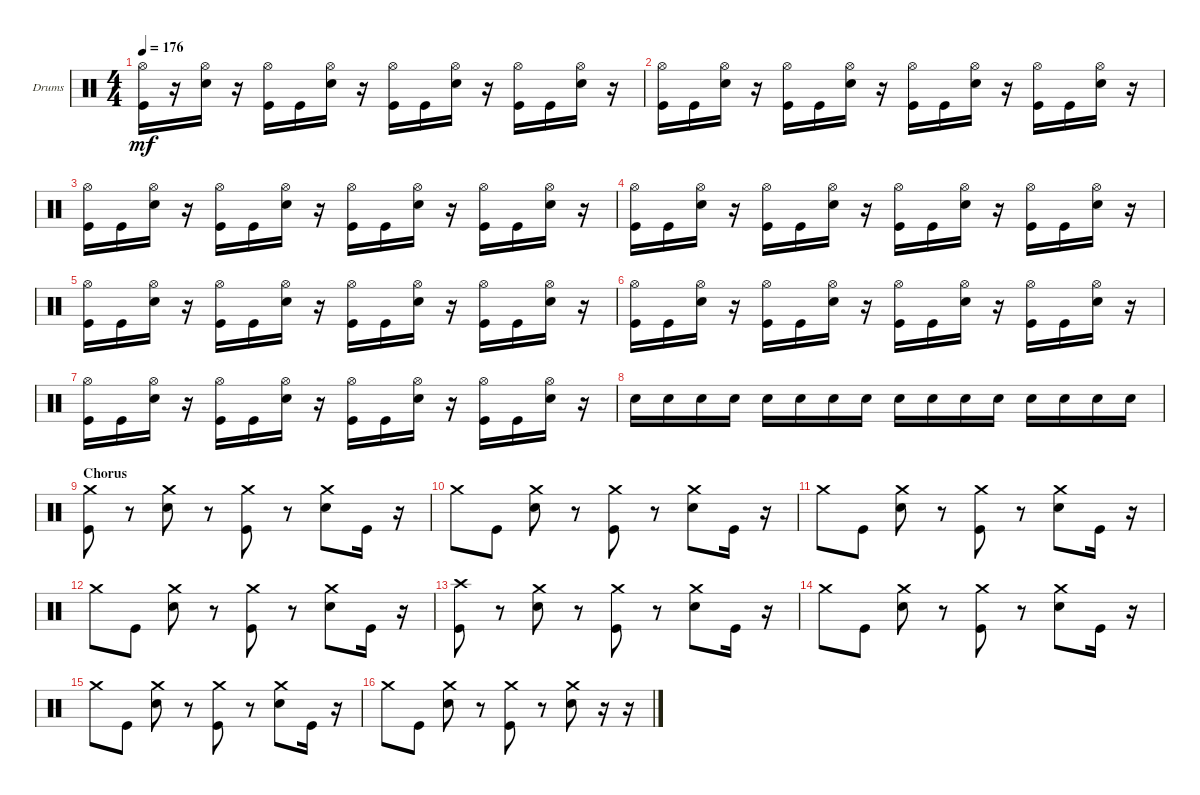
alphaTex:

\bracketExtendMode groupsimilarinstruments
\firstSystemTrackNameOrientation horizontal
\otherSystemsTrackNameOrientation horizontal
\track ("Drums" "Drums") {instrument percussion}
\staff {score}
\articulation defaults
\ts (4 4)
\tempo 176
\clef neutral
\ks c
("Kick (hit)" "Hi-Hat (open)").16{dy mf} r.16 ("Hi-Hat (open)" "Snare (hit) 2").16 r.16 ("Hi-Hat (open)" "Kick (hit)").16 "Kick (hit)".16 ("Hi-Hat (open)" "Snare (hit) 2").16 r.16 ("Hi-Hat (open)" "Kick (hit)").16 "Kick (hit)".16 ("Hi-Hat (open)" "Snare (hit) 2").16 r.16 ("Hi-Hat (open)" "Kick (hit)").16 "Kick (hit)".16 ("Hi-Hat (open)" "Snare (hit) 2").16 r.16 |
("Kick (hit)" "Hi-Hat (open)").16 "Kick (hit)".16 ("Hi-Hat (open)" "Snare (hit) 2").16 r.16 ("Hi-Hat (open)" "Kick (hit)").16 "Kick (hit)".16 ("Hi-Hat (open)" "Snare (hit) 2").16 r.16 ("Hi-Hat (open)" "Kick (hit)").16 "Kick (hit)".16 ("Hi-Hat (open)" "Snare (hit) 2").16 r.16 ("Hi-Hat (open)" "Kick (hit)").16 "Kick (hit)".16 ("Hi-Hat (open)" "Snare (hit) 2").16 r.16 |
("Kick (hit)" "Hi-Hat (open)").16 "Kick (hit)".16 ("Hi-Hat (open)" "Snare (hit) 2").16 r.16 ("Hi-Hat (open)" "Kick (hit)").16 "Kick (hit)".16 ("Hi-Hat (open)" "Snare (hit) 2").16 r.16 ("Hi-Hat (open)" "Kick (hit)").16 "Kick (hit)".16 ("Hi-Hat (open)" "Snare (hit) 2").16 r.16 ("Hi-Hat (open)" "Kick (hit)").16 "Kick (hit)".16 ("Hi-Hat (open)" "Snare (hit) 2").16 r.16 |
("Kick (hit)" "Hi-Hat (open)").16 "Kick (hit)".16 ("Hi-Hat (open)" "Snare (hit) 2").16 r.16 ("Hi-Hat (open)" "Kick (hit)").16 "Kick (hit)".16 ("Hi-Hat (open)" "Snare (hit) 2").16 r.16 ("Hi-Hat (open)" "Kick (hit)").16 "Kick (hit)".16 ("Hi-Hat (open)" "Snare (hit) 2").16 r.16 ("Hi-Hat (open)" "Kick (hit)").16 "Kick (hit)".16 ("Hi-Hat (open)" "Snare (hit) 2").16 r.16 |
("Kick (hit)" "Hi-Hat (open)").16 "Kick (hit)".16 ("Hi-Hat (open)" "Snare (hit) 2").16 r.16 ("Hi-Hat (open)" "Kick (hit)").16 "Kick (hit)".16 ("Hi-Hat (open)" "Snare (hit) 2").16 r.16 ("Hi-Hat (open)" "Kick (hit)").16 "Kick (hit)".16 ("Hi-Hat (open)" "Snare (hit) 2").16 r.16 ("Hi-Hat (open)" "Kick (hit)").16 "Kick (hit)".16 ("Hi-Hat (open)" "Snare (hit) 2").16 r.16 |
("Kick (hit)" "Hi-Hat (open)").16 "Kick (hit)".16 ("Hi-Hat (open)" "Snare (hit) 2").16 r.16 ("Hi-Hat (open)" "Kick (hit)").16 "Kick (hit)".16 ("Hi-Hat (open)" "Snare (hit) 2").16 r.16 ("Hi-Hat (open)" "Kick (hit)").16 "Kick (hit)".16 ("Hi-Hat (open)" "Snare (hit) 2").16 r.16 ("Hi-Hat (open)" "Kick (hit)").16 "Kick (hit)".16 ("Hi-Hat (open)" "Snare (hit) 2").16 r.16 |
("Kick (hit)" "Hi-Hat (open)").16 "Kick (hit)".16 ("Hi-Hat (open)" "Snare (hit) 2").16 r.16 ("Hi-Hat (open)" "Kick (hit)").16 "Kick (hit)".16 ("Hi-Hat (open)" "Snare (hit) 2").16 r.16 ("Hi-Hat (open)" "Kick (hit)").16 "Kick (hit)".16 ("Hi-Hat (open)" "Snare (hit) 2").16 r.16 ("Hi-Hat (open)" "Kick (hit)").16 "Kick (hit)".16 ("Hi-Hat (open)" "Snare (hit) 2").16 r.16 |
"Snare (hit) 2".16 "Snare (hit) 2".16 "Snare (hit) 2".16 "Snare (hit) 2".16 "Snare (hit) 2".16 "Snare (hit) 2".16 "Snare (hit) 2".16 "Snare (hit) 2".16 "Snare (hit) 2".16 "Snare (hit) 2".16 "Snare (hit) 2".16 "Snare (hit) 2".16 "Snare (hit) 2".16 "Snare (hit) 2".16 "Snare (hit) 2".16 "Snare (hit) 2".16 |
\section ("" "Chorus")
("Crash medium (hit)" "Kick (hit)").8 r.8 ("Crash medium (hit)" "Snare (hit) 2").8 r.8 ("Crash medium (hit)" "Kick (hit)").8 r.8 ("Crash medium (hit)" "Snare (hit) 2").8 "Kick (hit)".16 r.16 |
"Crash medium (hit)".8 "Kick (hit)".8 ("Crash medium (hit)" "Snare (hit) 2").8 r.8 ("Crash medium (hit)" "Kick (hit)").8 r.8 ("Crash medium (hit)" "Snare (hit) 2").8 "Kick (hit)".16 r.16 |
"Crash medium (hit)".8 "Kick (hit)".8 ("Crash medium (hit)" "Snare (hit) 2").8 r.8 ("Crash medium (hit)" "Kick (hit)").8 r.8 ("Crash medium (hit)" "Snare (hit) 2").8 "Kick (hit)".16 r.16 |
"Crash medium (hit)".8 "Kick (hit)".8 ("Crash medium (hit)" "Snare (hit) 2").8 r.8 ("Crash medium (hit)" "Kick (hit)").8 r.8 ("Crash medium (hit)" "Snare (hit) 2").8 "Kick (hit)".16 r.16 |
("Kick (hit)" "Crash high (hit)").8 r.8 ("Crash medium (hit)" "Snare (hit) 2").8 r.8 ("Crash medium (hit)" "Kick (hit)").8 r.8 ("Crash medium (hit)" "Snare (hit) 2").8 "Kick (hit)".16 r.16 |
"Crash medium (hit)".8 "Kick (hit)".8 ("Crash medium (hit)" "Snare (hit) 2").8 r.8 ("Crash medium (hit)" "Kick (hit)").8 r.8 ("Crash medium (hit)" "Snare (hit) 2").8 "Kick (hit)".16 r.16 |
"Crash medium (hit)".8 "Kick (hit)".8 ("Crash medium (hit)" "Snare (hit) 2").8 r.8 ("Crash medium (hit)" "Kick (hit)").8 r.8 ("Crash medium (hit)" "Snare (hit) 2").8 "Kick (hit)".16 r.16 |
"Crash medium (hit)".8 "Kick (hit)".8 ("Crash medium (hit)" "Snare (hit) 2").8 r.8 ("Crash medium (hit)" "Kick (hit)").8 r.8 ("Crash medium (hit)" "Snare (hit) 2").8 r.16 r.16
